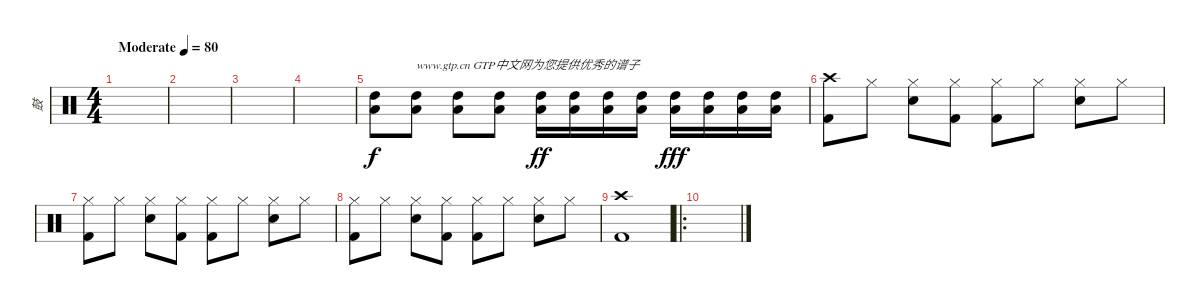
\track ("鼓" "鼓") {instrument percussion}
\staff {score}
\articulation defaults
\ts (4 4)
\tempo (80 "Moderate")
\clef neutral
\ks c
|
|
|
|
("High Tom (hit)" "Low Floor Tom (hit)").8 ("High Tom (hit)" "Low Floor Tom (hit)").8{txt "www.gtp.cn GTP中文网为您提供优秀的谱子"} ("High Tom (hit)" "Low Floor Tom (hit)").8{dy f} ("High Tom (hit)" "Low Floor Tom (hit)").8 ("High Tom (hit)" "Low Floor Tom (hit)").16{dy ff} ("High Tom (hit)" "Low Floor Tom (hit)").16 ("High Tom (hit)" "Low Floor Tom (hit)").16 ("High Tom (hit)" "Low Floor Tom (hit)").16 ("High Tom (hit)" "Low Floor Tom (hit)").16{dy fff} ("High Tom (hit)" "Low Floor Tom (hit)").16 ("High Tom (hit)" "Low Floor Tom (hit)").16 ("High Tom (hit)" "Low Floor Tom (hit)").16 |
("Crash high (hit)" "Kick (hit) 2").8 "Hi-Hat (closed)".8 ("Hi-Hat (closed)" "Snare (hit) 2").8 ("Hi-Hat (closed)" "Kick (hit) 2").8 ("Hi-Hat (closed)" "Kick (hit) 2").8 "Hi-Hat (closed)".8 ("Hi-Hat (closed)" "Snare (hit) 2").8 "Hi-Hat (closed)".8 |
("Hi-Hat (closed)" "Kick (hit) 2").8 "Hi-Hat (closed)".8 ("Hi-Hat (closed)" "Snare (hit) 2").8 ("Hi-Hat (closed)" "Kick (hit) 2").8 ("Hi-Hat (closed)" "Kick (hit) 2").8 "Hi-Hat (closed)".8 ("Hi-Hat (closed)" "Snare (hit) 2").8 "Hi-Hat (closed)".8 |
("Hi-Hat (closed)" "Kick (hit) 2").8 "Hi-Hat (closed)".8 ("Hi-Hat (closed)" "Snare (hit) 2").8 ("Hi-Hat (closed)" "Kick (hit) 2").8 ("Hi-Hat (closed)" "Kick (hit) 2").8 "Hi-Hat (closed)".8 ("Hi-Hat (closed)" "Snare (hit) 2").8 "Hi-Hat (closed)".8 |
("Crash high (hit)" "Kick (hit) 2").1 |
\ro
